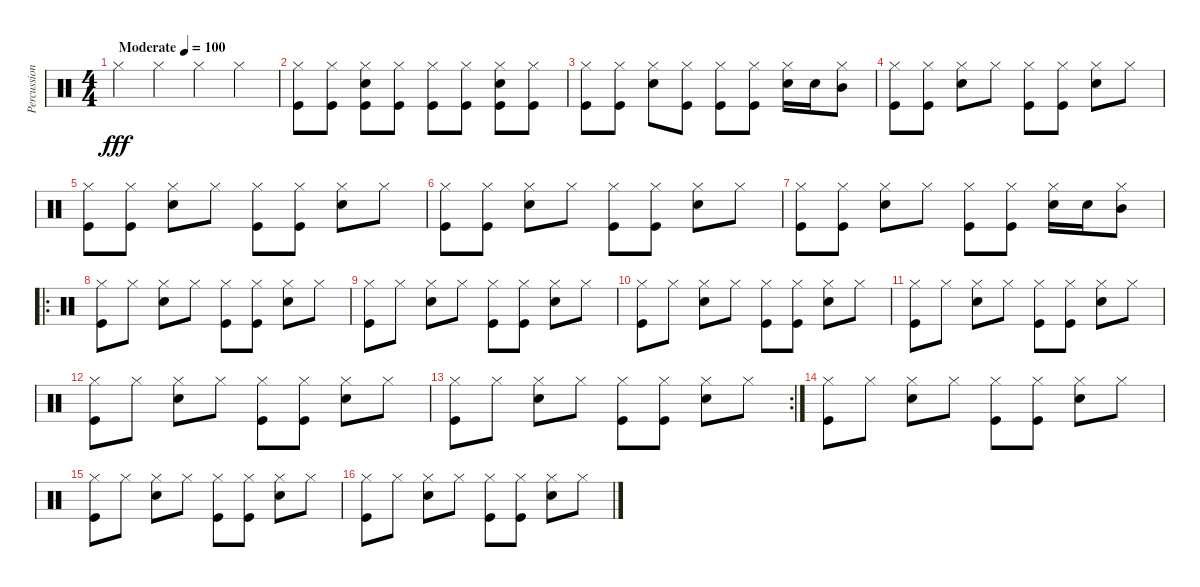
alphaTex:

\track ("Percussion" "Percussion") {instrument percussion}
\staff {score}
\articulation defaults
\ts (4 4)
\tempo (100 "Moderate")
\clef neutral
\ks c "Hi-Hat (closed)".4{dy fff} "Hi-Hat (closed)".4 "Hi-Hat (closed)".4 "Hi-Hat (closed)".4
|
("Hi-Hat (closed)" "Kick (hit)").8 ("Hi-Hat (closed)" "Kick (hit)").8 ("Hi-Hat (closed)" "Kick (hit)" "Snare (hit) 2").8 ("Hi-Hat (closed)" "Kick (hit)").8 ("Hi-Hat (closed)" "Kick (hit)").8 ("Hi-Hat (closed)" "Kick (hit)").8 ("Hi-Hat (closed)" "Kick (hit)" "Snare (hit) 2").8 ("Hi-Hat (closed)" "Kick (hit)").8 |
("Hi-Hat (closed)" "Kick (hit)").8 ("Hi-Hat (closed)" "Kick (hit)").8 ("Hi-Hat (closed)" "Snare (hit) 2").8 ("Hi-Hat (closed)" "Kick (hit)").8 ("Hi-Hat (closed)" "Kick (hit)").8 ("Hi-Hat (closed)" "Kick (hit)").8 ("Hi-Hat (closed)" "Snare (hit) 2").16 "Snare (hit) 2".16 ("Hi-Hat (closed)" "Mid Tom (hit)").8 |
("Hi-Hat (closed)" "Kick (hit)").8 ("Hi-Hat (closed)" "Kick (hit)").8 ("Hi-Hat (closed)" "Snare (hit) 2").8 "Hi-Hat (closed)".8 ("Hi-Hat (closed)" "Kick (hit)").8 ("Hi-Hat (closed)" "Kick (hit)").8 ("Hi-Hat (closed)" "Snare (hit) 2").8 "Hi-Hat (closed)".8 |
("Hi-Hat (closed)" "Kick (hit)").8 ("Hi-Hat (closed)" "Kick (hit)").8 ("Hi-Hat (closed)" "Snare (hit) 2").8 "Hi-Hat (closed)".8 ("Hi-Hat (closed)" "Kick (hit)").8 ("Hi-Hat (closed)" "Kick (hit)").8 ("Hi-Hat (closed)" "Snare (hit) 2").8 "Hi-Hat (closed)".8 |
("Hi-Hat (closed)" "Kick (hit)").8 ("Hi-Hat (closed)" "Kick (hit)").8 ("Hi-Hat (closed)" "Snare (hit) 2").8 "Hi-Hat (closed)".8 ("Hi-Hat (closed)" "Kick (hit)").8 ("Hi-Hat (closed)" "Kick (hit)").8 ("Hi-Hat (closed)" "Snare (hit) 2").8 "Hi-Hat (closed)".8 |
("Hi-Hat (closed)" "Kick (hit)").8 ("Hi-Hat (closed)" "Kick (hit)").8 ("Hi-Hat (closed)" "Snare (hit) 2").8 "Hi-Hat (closed)".8 ("Hi-Hat (closed)" "Kick (hit)").8 ("Hi-Hat (closed)" "Kick (hit)").8 ("Hi-Hat (closed)" "Snare (hit) 2").16 "Snare (hit) 2".16 ("Hi-Hat (closed)" "Mid Tom (hit)").8 |
\ro
("Hi-Hat (closed)" "Kick (hit)").8 "Hi-Hat (closed)".8 ("Hi-Hat (closed)" "Snare (hit) 2").8 "Hi-Hat (closed)".8 ("Hi-Hat (closed)" "Kick (hit)").8 ("Hi-Hat (closed)" "Kick (hit)").8 ("Hi-Hat (closed)" "Snare (hit) 2").8 "Hi-Hat (closed)".8 |
("Hi-Hat (closed)" "Kick (hit)").8 "Hi-Hat (closed)".8 ("Hi-Hat (closed)" "Snare (hit) 2").8 "Hi-Hat (closed)".8 ("Hi-Hat (closed)" "Kick (hit)").8 ("Hi-Hat (closed)" "Kick (hit)").8 ("Hi-Hat (closed)" "Snare (hit) 2").8 "Hi-Hat (closed)".8 |
("Hi-Hat (closed)" "Kick (hit)").8 "Hi-Hat (closed)".8 ("Hi-Hat (closed)" "Snare (hit) 2").8 "Hi-Hat (closed)".8 ("Hi-Hat (closed)" "Kick (hit)").8 ("Hi-Hat (closed)" "Kick (hit)").8 ("Hi-Hat (closed)" "Snare (hit) 2").8 "Hi-Hat (closed)".8 |
("Hi-Hat (closed)" "Kick (hit)").8 "Hi-Hat (closed)".8 ("Hi-Hat (closed)" "Snare (hit) 2").8 "Hi-Hat (closed)".8 ("Hi-Hat (closed)" "Kick (hit)").8 ("Hi-Hat (closed)" "Kick (hit)").8 ("Hi-Hat (closed)" "Snare (hit) 2").8 "Hi-Hat (closed)".8 |
("Hi-Hat (closed)" "Kick (hit)").8 "Hi-Hat (closed)".8 ("Hi-Hat (closed)" "Snare (hit) 2").8 "Hi-Hat (closed)".8 ("Hi-Hat (closed)" "Kick (hit)").8 ("Hi-Hat (closed)" "Kick (hit)").8 ("Hi-Hat (closed)" "Snare (hit) 2").8 "Hi-Hat (closed)".8 |
\rc 2
("Hi-Hat (closed)" "Kick (hit)").8 "Hi-Hat (closed)".8 ("Hi-Hat (closed)" "Snare (hit) 2").8 "Hi-Hat (closed)".8 ("Hi-Hat (closed)" "Kick (hit)").8 ("Hi-Hat (closed)" "Kick (hit)").8 ("Hi-Hat (closed)" "Snare (hit) 2").8 "Hi-Hat (closed)".8 |
("Hi-Hat (closed)" "Kick (hit)").8 "Hi-Hat (closed)".8 ("Hi-Hat (closed)" "Snare (hit) 2").8 "Hi-Hat (closed)".8 ("Hi-Hat (closed)" "Kick (hit)").8 ("Hi-Hat (closed)" "Kick (hit)").8 ("Hi-Hat (closed)" "Snare (hit) 2").8 "Hi-Hat (closed)".8 |
("Hi-Hat (closed)" "Kick (hit)").8 "Hi-Hat (closed)".8 ("Hi-Hat (closed)" "Snare (hit) 2").8 "Hi-Hat (closed)".8 ("Hi-Hat (closed)" "Kick (hit)").8 ("Hi-Hat (closed)" "Kick (hit)").8 ("Hi-Hat (closed)" "Snare (hit) 2").8 "Hi-Hat (closed)".8 |
("Hi-Hat (closed)" "Kick (hit)").8 "Hi-Hat (closed)".8 ("Hi-Hat (closed)" "Snare (hit) 2").8 "Hi-Hat (closed)".8 ("Hi-Hat (closed)" "Kick (hit)").8 ("Hi-Hat (closed)" "Kick (hit)").8 ("Hi-Hat (closed)" "Snare (hit) 2").8 "Hi-Hat (closed)".8
